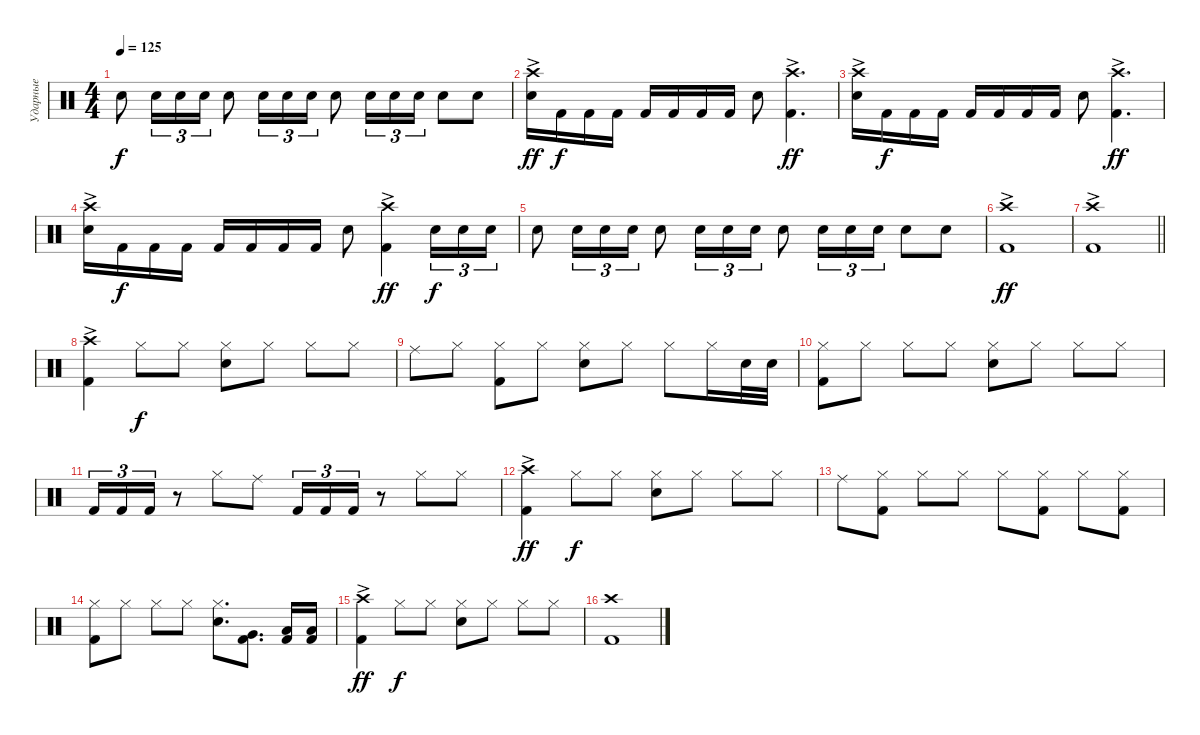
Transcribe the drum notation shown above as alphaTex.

\track ("Ударные" "Ударные") {instrument percussion}
\staff
\articulation defaults
\ts (4 4)
\tempo 125
\clef neutral
\ks c "Snare (hit) 2".8{dy f} "Snare (hit) 2".16{tu (3 2)} "Snare (hit) 2".16{tu (3 2)} "Snare (hit) 2".16{tu (3 2)} "Snare (hit) 2".8 "Snare (hit) 2".16{tu (3 2)} "Snare (hit) 2".16{tu (3 2)} "Snare (hit) 2".16{tu (3 2)} "Snare (hit) 2".8 "Snare (hit) 2".16{tu (3 2)} "Snare (hit) 2".16{tu (3 2)} "Snare (hit) 2".16{tu (3 2)} "Snare (hit) 2".8 "Snare (hit) 2".8
|
("Snare (hit) 2" "Crash high (hit)"{ac}).16{dy ff} "Kick (hit) 2".16{dy f} "Kick (hit) 2".16 "Kick (hit) 2".16 "Kick (hit) 2".16 "Kick (hit) 2".16 "Kick (hit) 2".16 "Kick (hit) 2".16 "Snare (hit) 2".8 ("Kick (hit) 2" "Crash high (hit)"{ac}).4{d dy ff} |
("Snare (hit) 2" "Crash high (hit)"{ac}).16 "Kick (hit) 2".16{dy f} "Kick (hit) 2".16 "Kick (hit) 2".16 "Kick (hit) 2".16 "Kick (hit) 2".16 "Kick (hit) 2".16 "Kick (hit) 2".16 "Snare (hit) 2".8 ("Kick (hit) 2" "Crash high (hit)"{ac}).4{d dy ff} |
("Snare (hit) 2" "Crash high (hit)"{ac}).16 "Kick (hit) 2".16{dy f} "Kick (hit) 2".16 "Kick (hit) 2".16 "Kick (hit) 2".16 "Kick (hit) 2".16 "Kick (hit) 2".16 "Kick (hit) 2".16 "Snare (hit) 2".8 ("Kick (hit) 2" "Crash high (hit)"{ac}).4{dy ff} "Snare (hit) 2".16{tu (3 2) dy f} "Snare (hit) 2".16{tu (3 2)} "Snare (hit) 2".16{tu (3 2)} |
"Snare (hit) 2".8 "Snare (hit) 2".16{tu (3 2)} "Snare (hit) 2".16{tu (3 2)} "Snare (hit) 2".16{tu (3 2)} "Snare (hit) 2".8 "Snare (hit) 2".16{tu (3 2)} "Snare (hit) 2".16{tu (3 2)} "Snare (hit) 2".16{tu (3 2)} "Snare (hit) 2".8 "Snare (hit) 2".16{tu (3 2)} "Snare (hit) 2".16{tu (3 2)} "Snare (hit) 2".16{tu (3 2)} "Snare (hit) 2".8 "Snare (hit) 2".8 |
("Kick (hit) 2" "Crash high (hit)"{ac}).1{dy ff} |
\barLineRight lightlight
("Kick (hit) 2" "Crash high (hit)"{ac}).1 |
("Kick (hit) 2" "Crash high (hit)"{ac}).4 "Hi-Hat (closed)".8{dy f} "Hi-Hat (closed)".8 ("Snare (hit) 2" "Hi-Hat (closed)").8 "Hi-Hat (closed)".8 "Hi-Hat (closed)".8 "Hi-Hat (closed)".8 |
"Ride (middle)".8 "Hi-Hat (closed)".8 ("Kick (hit) 2" "Hi-Hat (closed)").8 "Hi-Hat (closed)".8 ("Snare (hit) 2" "Hi-Hat (closed)").8 "Hi-Hat (closed)".8 "Hi-Hat (closed)".8 "Hi-Hat (closed)".16 "Electric Snare (hit)".32 "Electric Snare (hit)".32 |
("Kick (hit) 2" "Hi-Hat (closed)").8 "Hi-Hat (closed)".8 "Hi-Hat (closed)".8 "Hi-Hat (closed)".8 ("Snare (hit) 2" "Hi-Hat (closed)").8 "Hi-Hat (closed)".8 "Hi-Hat (closed)".8 "Hi-Hat (closed)".8 |
"Kick (hit) 2".16{tu (3 2)} "Kick (hit) 2".16{tu (3 2)} "Kick (hit) 2".16{tu (3 2)} r.8 "Hi-Hat (closed)".8 "Ride (middle)".8 "Kick (hit) 2".16{tu (3 2)} "Kick (hit) 2".16{tu (3 2)} "Kick (hit) 2".16{tu (3 2)} r.8 "Hi-Hat (closed)".8 "Hi-Hat (closed)".8 |
("Kick (hit) 2" "Crash high (hit)"{ac}).4{dy ff} "Hi-Hat (closed)".8{dy f} "Hi-Hat (closed)".8 ("Snare (hit) 2" "Hi-Hat (closed)").8 "Hi-Hat (closed)".8 "Hi-Hat (closed)".8 "Hi-Hat (closed)".8 |
"Ride (middle)".8 ("Kick (hit) 2" "Hi-Hat (closed)").8 "Hi-Hat (closed)".8 "Hi-Hat (closed)".8 "Hi-Hat (closed)".8 ("Kick (hit) 2" "Hi-Hat (closed)").8 "Hi-Hat (closed)".8 ("Kick (hit) 2" "Hi-Hat (closed)").8 |
("Kick (hit) 2" "Hi-Hat (closed)").8 "Hi-Hat (closed)".8 "Hi-Hat (closed)".8 "Hi-Hat (closed)".8 ("Snare (hit) 2" "Hi-Hat (closed)").8{d} ("Kick (hit) 2" "Very Low Tom (hit)").8{d} ("Kick (hit) 2" "Low Floor Tom (hit)").16 ("Kick (hit) 2" "Low Floor Tom (hit)").16 |
("Kick (hit) 2" "Crash high (hit)"{ac}).4{dy ff} "Hi-Hat (closed)".8{dy f} "Hi-Hat (closed)".8 ("Snare (hit) 2" "Hi-Hat (closed)").8 "Hi-Hat (closed)".8 "Hi-Hat (closed)".8 "Hi-Hat (closed)".8 |
("Kick (hit) 2" "Crash high (hit)").1
